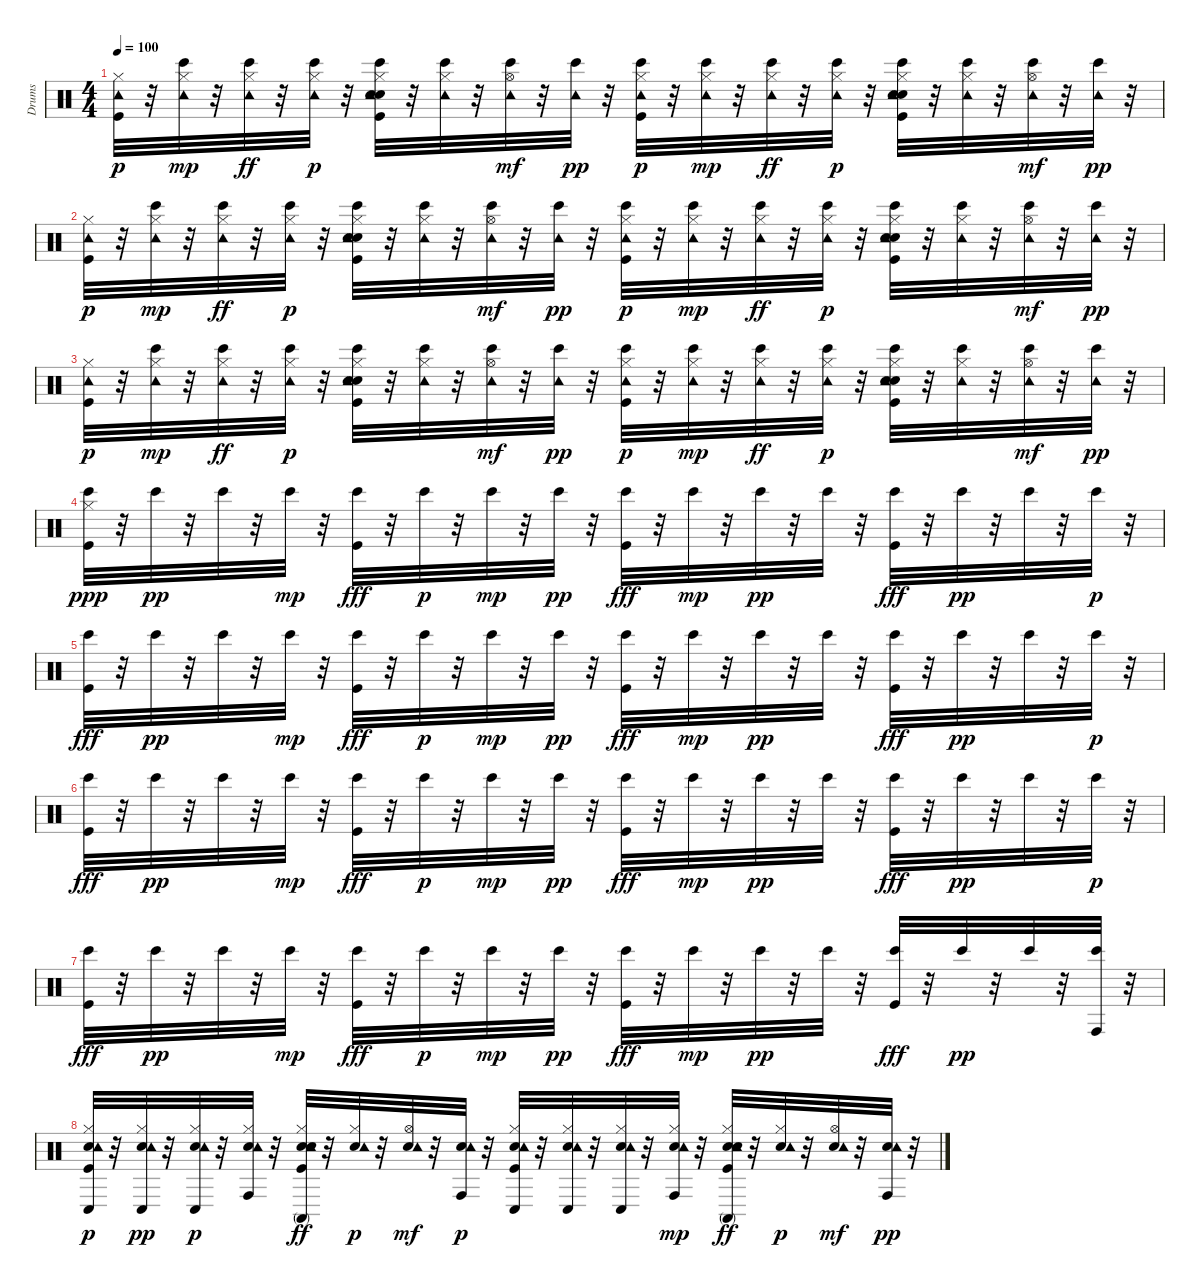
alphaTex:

\track ("Drums" "Drums") {instrument percussion}
\staff {score}
\articulation defaults
\ts (4 4)
\tempo 100
\clef neutral
\ks c
("Tambourine (hit)" "Kick (hit)" "Hi-Hat (closed)").32{dy p} r.32 ("Bongo High (hit)" "Tambourine (hit)" "Hi-Hat (closed)").32{dy mp} r.32 ("Bongo High (hit)" "Tambourine (hit)" "Hi-Hat (closed)").32{dy ff} r.32 ("Bongo High (hit)" "Tambourine (hit)" "Hi-Hat (closed)").32{dy p} r.32 ("Hand Clap (hit)" "Snare (hit) 2" "Bongo High (hit)" "Tambourine (hit)" "Kick (hit)" "Hi-Hat (closed)").32 r.32 ("Bongo High (hit)" "Tambourine (hit)" "Hi-Hat (closed)").32 r.32 ("Bongo High (hit)" "Tambourine (hit)" "Hi-Hat (open)").32{dy mf} r.32 ("Bongo High (hit)" "Tambourine (hit)").32{dy pp} r.32 ("Bongo High (hit)" "Tambourine (hit)" "Kick (hit)" "Hi-Hat (closed)").32{dy p} r.32 ("Bongo High (hit)" "Tambourine (hit)" "Hi-Hat (closed)").32{dy mp} r.32 ("Bongo High (hit)" "Tambourine (hit)" "Hi-Hat (closed)").32{dy ff} r.32 ("Bongo High (hit)" "Tambourine (hit)" "Hi-Hat (closed)").32{dy p} r.32 ("Hand Clap (hit)" "Snare (hit) 2" "Bongo High (hit)" "Tambourine (hit)" "Kick (hit)" "Hi-Hat (closed)").32 r.32 ("Bongo High (hit)" "Tambourine (hit)" "Hi-Hat (closed)").32 r.32 ("Bongo High (hit)" "Tambourine (hit)" "Hi-Hat (open)").32{dy mf} r.32 ("Bongo High (hit)" "Tambourine (hit)").32{dy pp} r.32 |
("Tambourine (hit)" "Kick (hit)" "Hi-Hat (closed)").32{dy p} r.32 ("Bongo High (hit)" "Tambourine (hit)" "Hi-Hat (closed)").32{dy mp} r.32 ("Bongo High (hit)" "Tambourine (hit)" "Hi-Hat (closed)").32{dy ff} r.32 ("Bongo High (hit)" "Tambourine (hit)" "Hi-Hat (closed)").32{dy p} r.32 ("Hand Clap (hit)" "Snare (hit) 2" "Bongo High (hit)" "Tambourine (hit)" "Kick (hit)" "Hi-Hat (closed)").32 r.32 ("Bongo High (hit)" "Tambourine (hit)" "Hi-Hat (closed)").32 r.32 ("Bongo High (hit)" "Tambourine (hit)" "Hi-Hat (open)").32{dy mf} r.32 ("Bongo High (hit)" "Tambourine (hit)").32{dy pp} r.32 ("Bongo High (hit)" "Tambourine (hit)" "Kick (hit)" "Hi-Hat (closed)").32{dy p} r.32 ("Bongo High (hit)" "Tambourine (hit)" "Hi-Hat (closed)").32{dy mp} r.32 ("Bongo High (hit)" "Tambourine (hit)" "Hi-Hat (closed)").32{dy ff} r.32 ("Bongo High (hit)" "Tambourine (hit)" "Hi-Hat (closed)").32{dy p} r.32 ("Hand Clap (hit)" "Snare (hit) 2" "Bongo High (hit)" "Tambourine (hit)" "Kick (hit)" "Hi-Hat (closed)").32 r.32 ("Bongo High (hit)" "Tambourine (hit)" "Hi-Hat (closed)").32 r.32 ("Bongo High (hit)" "Tambourine (hit)" "Hi-Hat (open)").32{dy mf} r.32 ("Bongo High (hit)" "Tambourine (hit)").32{dy pp} r.32 |
("Tambourine (hit)" "Kick (hit)" "Hi-Hat (closed)").32{dy p} r.32 ("Bongo High (hit)" "Tambourine (hit)" "Hi-Hat (closed)").32{dy mp} r.32 ("Bongo High (hit)" "Tambourine (hit)" "Hi-Hat (closed)").32{dy ff} r.32 ("Bongo High (hit)" "Tambourine (hit)" "Hi-Hat (closed)").32{dy p} r.32 ("Hand Clap (hit)" "Snare (hit) 2" "Bongo High (hit)" "Tambourine (hit)" "Kick (hit)" "Hi-Hat (closed)").32 r.32 ("Bongo High (hit)" "Tambourine (hit)" "Hi-Hat (closed)").32 r.32 ("Bongo High (hit)" "Tambourine (hit)" "Hi-Hat (open)").32{dy mf} r.32 ("Bongo High (hit)" "Tambourine (hit)").32{dy pp} r.32 ("Bongo High (hit)" "Tambourine (hit)" "Kick (hit)" "Hi-Hat (closed)").32{dy p} r.32 ("Bongo High (hit)" "Tambourine (hit)" "Hi-Hat (closed)").32{dy mp} r.32 ("Bongo High (hit)" "Tambourine (hit)" "Hi-Hat (closed)").32{dy ff} r.32 ("Bongo High (hit)" "Tambourine (hit)" "Hi-Hat (closed)").32{dy p} r.32 ("Hand Clap (hit)" "Snare (hit) 2" "Bongo High (hit)" "Tambourine (hit)" "Kick (hit)" "Hi-Hat (closed)").32 r.32 ("Bongo High (hit)" "Tambourine (hit)" "Hi-Hat (closed)").32 r.32 ("Bongo High (hit)" "Tambourine (hit)" "Hi-Hat (open)").32{dy mf} r.32 ("Bongo High (hit)" "Tambourine (hit)").32{dy pp} r.32 |
("Bongo High (hit)" "Kick (hit)" "Hi-Hat (closed)").32{dy ppp} r.32 "Bongo High (hit)".32{dy pp} r.32 "Bongo High (hit)".32 r.32 "Bongo High (hit)".32{dy mp} r.32 ("Bongo High (hit)" "Kick (hit)").32{dy fff} r.32 "Bongo High (hit)".32{dy p} r.32 "Bongo High (hit)".32{dy mp} r.32 "Bongo High (hit)".32{dy pp} r.32 ("Bongo High (hit)" "Kick (hit)").32{dy fff} r.32 "Bongo High (hit)".32{dy mp} r.32 "Bongo High (hit)".32{dy pp} r.32 "Bongo High (hit)".32 r.32 ("Bongo High (hit)" "Kick (hit)").32{dy fff} r.32 "Bongo High (hit)".32{dy pp} r.32 "Bongo High (hit)".32 r.32 "Bongo High (hit)".32{dy p} r.32 |
("Bongo High (hit)" "Kick (hit)").32{dy fff} r.32 "Bongo High (hit)".32{dy pp} r.32 "Bongo High (hit)".32 r.32 "Bongo High (hit)".32{dy mp} r.32 ("Bongo High (hit)" "Kick (hit)").32{dy fff} r.32 "Bongo High (hit)".32{dy p} r.32 "Bongo High (hit)".32{dy mp} r.32 "Bongo High (hit)".32{dy pp} r.32 ("Bongo High (hit)" "Kick (hit)").32{dy fff} r.32 "Bongo High (hit)".32{dy mp} r.32 "Bongo High (hit)".32{dy pp} r.32 "Bongo High (hit)".32 r.32 ("Bongo High (hit)" "Kick (hit)").32{dy fff} r.32 "Bongo High (hit)".32{dy pp} r.32 "Bongo High (hit)".32 r.32 "Bongo High (hit)".32{dy p} r.32 |
("Bongo High (hit)" "Kick (hit)").32{dy fff} r.32 "Bongo High (hit)".32{dy pp} r.32 "Bongo High (hit)".32 r.32 "Bongo High (hit)".32{dy mp} r.32 ("Bongo High (hit)" "Kick (hit)").32{dy fff} r.32 "Bongo High (hit)".32{dy p} r.32 "Bongo High (hit)".32{dy mp} r.32 "Bongo High (hit)".32{dy pp} r.32 ("Bongo High (hit)" "Kick (hit)").32{dy fff} r.32 "Bongo High (hit)".32{dy mp} r.32 "Bongo High (hit)".32{dy pp} r.32 "Bongo High (hit)".32 r.32 ("Bongo High (hit)" "Kick (hit)").32{dy fff} r.32 "Bongo High (hit)".32{dy pp} r.32 "Bongo High (hit)".32 r.32 "Bongo High (hit)".32{dy p} r.32 |
("Bongo High (hit)" "Kick (hit)").32{dy fff} r.32 "Bongo High (hit)".32{dy pp} r.32 "Bongo High (hit)".32 r.32 "Bongo High (hit)".32{dy mp} r.32 ("Bongo High (hit)" "Kick (hit)").32{dy fff} r.32 "Bongo High (hit)".32{dy p} r.32 "Bongo High (hit)".32{dy mp} r.32 "Bongo High (hit)".32{dy pp} r.32 ("Bongo High (hit)" "Kick (hit)").32{dy fff} r.32 "Bongo High (hit)".32{dy mp} r.32 "Bongo High (hit)".32{dy pp} r.32 "Bongo High (hit)".32 r.32 ("Bongo High (hit)" "Kick (hit)").32{dy fff} r.32 "Bongo High (hit)".32{dy pp} r.32 "Bongo High (hit)".32 r.32 ("Bongo High (hit)" "Conga high (hit)").32 r.32 |
("Hand Clap (hit)" "Tambourine (hit)" "Kick (hit)" "Hi-Hat (closed)" "Conga low (hit)").32{dy p} r.32 ("Hand Clap (hit)" "Tambourine (hit)" "Hi-Hat (closed)" "Conga low (hit)").32{dy pp} r.32 ("Hand Clap (hit)" "Tambourine (hit)" "Hi-Hat (closed)" "Conga low (hit)").32{dy p} r.32 ("Hand Clap (hit)" "Tambourine (hit)" "Hi-Hat (closed)" "Conga high (hit)").32 r.32 ("Hand Clap (hit)" "Snare (hit) 2" "Tambourine (hit)" "Kick (hit)" "Hi-Hat (closed)" "Conga high (mute)").32{dy ff} r.32 ("Hand Clap (hit)" "Tambourine (hit)" "Hi-Hat (closed)").32{dy p} r.32 ("Hand Clap (hit)" "Tambourine (hit)" "Hi-Hat (open)").32{dy mf} r.32 ("Hand Clap (hit)" "Tambourine (hit)" "Conga high (hit)").32{dy p} r.32 ("Hand Clap (hit)" "Tambourine (hit)" "Kick (hit)" "Hi-Hat (closed)" "Conga low (hit)").32 r.32 ("Hand Clap (hit)" "Tambourine (hit)" "Hi-Hat (closed)" "Conga low (hit)").32 r.32 ("Hand Clap (hit)" "Tambourine (hit)" "Hi-Hat (closed)" "Conga low (hit)").32 r.32 ("Hand Clap (hit)" "Tambourine (hit)" "Hi-Hat (closed)" "Conga high (hit)").32{dy mp} r.32 ("Hand Clap (hit)" "Snare (hit) 2" "Tambourine (hit)" "Kick (hit)" "Hi-Hat (closed)" "Conga high (mute)").32{dy ff} r.32 ("Hand Clap (hit)" "Tambourine (hit)" "Hi-Hat (closed)").32{dy p} r.32 ("Hand Clap (hit)" "Tambourine (hit)" "Hi-Hat (open)").32{dy mf} r.32 ("Hand Clap (hit)" "Tambourine (hit)" "Conga high (hit)").32{dy pp} r.32
